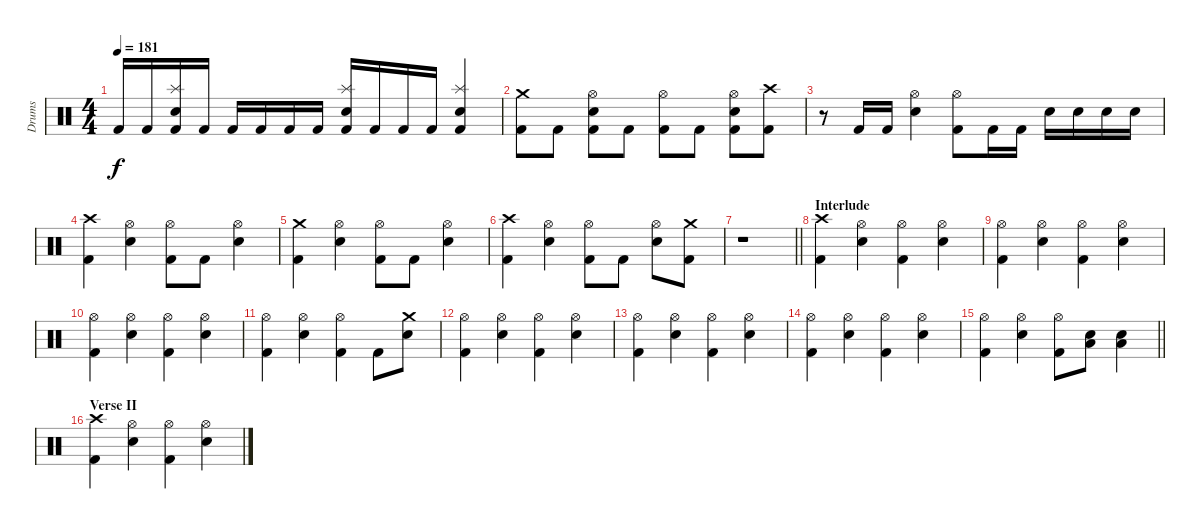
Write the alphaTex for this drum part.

\track ("Drums" "Drums") {instrument percussion}
\staff {score}
\articulation defaults
\ts (4 4)
\tempo 181
\clef neutral
\ks c "Kick (hit) 2".16{dy f} "Kick (hit) 2".16
("Splash (hit)" "Snare (hit) 2" "Kick (hit) 2").16 "Kick (hit) 2".16 "Kick (hit) 2".16 "Kick (hit) 2".16 "Kick (hit) 2".16 "Kick (hit) 2".16 ("Splash (hit)" "Snare (hit) 2" "Kick (hit) 2").16 "Kick (hit) 2".16 "Kick (hit) 2".16 "Kick (hit) 2".16 ("Splash (hit)" "Snare (hit) 2" "Kick (hit) 2").4 |
("Crash medium (hit)" "Kick (hit) 2").8 "Kick (hit) 2".8 ("Hi-Hat (open)" "Snare (hit) 2" "Kick (hit) 2").8 "Kick (hit) 2".8 ("Hi-Hat (open)" "Kick (hit) 2").8 "Kick (hit) 2".8 ("Hi-Hat (open)" "Snare (hit) 2" "Kick (hit) 2").8 ("Crash high (hit)" "Kick (hit) 2").8 |
r.8 "Kick (hit) 2".16 "Kick (hit) 2".16 ("Hi-Hat (open)" "Snare (hit) 2").4 ("Hi-Hat (open)" "Kick (hit) 2").8 "Kick (hit) 2".16 "Kick (hit) 2".16 "Snare (hit) 2".16 "Snare (hit) 2".16 "Snare (hit) 2".16 "Snare (hit) 2".16 |
("Crash high (hit)" "Kick (hit) 2").4 ("Hi-Hat (open)" "Snare (hit) 2").4 ("Hi-Hat (open)" "Kick (hit) 2").8 "Kick (hit) 2".8 ("Hi-Hat (open)" "Snare (hit) 2").4 |
("Crash medium (hit)" "Kick (hit) 2").4 ("Hi-Hat (open)" "Snare (hit) 2").4 ("Hi-Hat (open)" "Kick (hit) 2").8 "Kick (hit) 2".8 ("Hi-Hat (open)" "Snare (hit) 2").4 |
("Crash high (hit)" "Kick (hit) 2").4 ("Hi-Hat (open)" "Snare (hit) 2").4 ("Hi-Hat (open)" "Kick (hit) 2").8 "Kick (hit) 2".8 ("Hi-Hat (open)" "Snare (hit) 2").8 ("Crash medium (hit)" "Kick (hit) 2").8 |
\barLineRight lightlight
r.1 |
\section ("" "Interlude")
("Crash high (hit)" "Kick (hit) 2").4 ("Hi-Hat (open)" "Snare (hit) 2").4 ("Hi-Hat (open)" "Kick (hit) 2").4 ("Hi-Hat (open)" "Snare (hit) 2").4 |
("Hi-Hat (open)" "Kick (hit) 2").4 ("Hi-Hat (open)" "Snare (hit) 2").4 ("Hi-Hat (open)" "Kick (hit) 2").4 ("Hi-Hat (open)" "Snare (hit) 2").4 |
("Hi-Hat (open)" "Kick (hit) 2").4 ("Hi-Hat (open)" "Snare (hit) 2").4 ("Hi-Hat (open)" "Kick (hit) 2").4 ("Hi-Hat (open)" "Snare (hit) 2").4 |
("Hi-Hat (open)" "Kick (hit) 2").4 ("Hi-Hat (open)" "Snare (hit) 2").4 ("Hi-Hat (open)" "Kick (hit) 2").4 "Kick (hit) 2".8 ("Crash medium (hit)" "Snare (hit) 2").8 |
("Hi-Hat (open)" "Kick (hit) 2").4 ("Hi-Hat (open)" "Snare (hit) 2").4 ("Hi-Hat (open)" "Kick (hit) 2").4 ("Hi-Hat (open)" "Snare (hit) 2").4 |
("Hi-Hat (open)" "Kick (hit) 2").4 ("Hi-Hat (open)" "Snare (hit) 2").4 ("Hi-Hat (open)" "Kick (hit) 2").4 ("Hi-Hat (open)" "Snare (hit) 2").4 |
("Hi-Hat (open)" "Kick (hit) 2").4 ("Hi-Hat (open)" "Snare (hit) 2").4 ("Hi-Hat (open)" "Kick (hit) 2").4 ("Hi-Hat (open)" "Snare (hit) 2").4 |
\barLineRight lightlight
("Hi-Hat (open)" "Kick (hit) 2").4 ("Hi-Hat (open)" "Snare (hit) 2").4 ("Hi-Hat (open)" "Kick (hit) 2").8 ("Snare (hit) 2" "Low Tom (hit)").8 ("Snare (hit) 2" "Low Tom (hit)").4 |
\section ("" "Verse II")
("Crash high (hit)" "Kick (hit) 2").4 ("Hi-Hat (open)" "Snare (hit) 2").4 ("Hi-Hat (open)" "Kick (hit) 2").4 ("Hi-Hat (open)" "Snare (hit) 2").4
